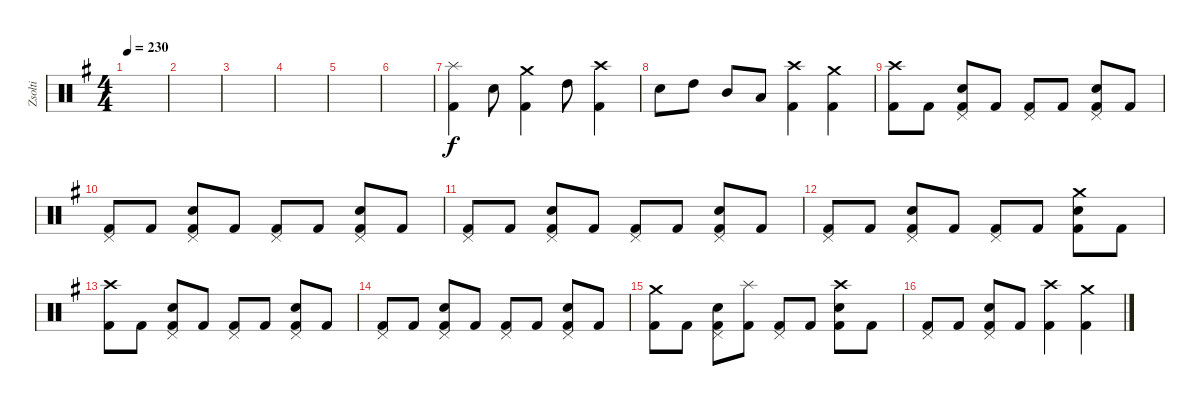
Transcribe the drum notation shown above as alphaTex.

\track ("Zsolti" "Zsolti") {instrument percussion}
\staff {score}
\articulation defaults
\ts (4 4)
\tempo 230
\clef neutral
\ks eminor
|
|
|
|
|
|
("Splash (hit)" "Kick (hit) 2").4 "Snare (hit) 2".8 ("Crash medium (hit)" "Kick (hit) 2").4 "High Tom (hit)".8 ("Crash high (hit)" "Kick (hit) 2").4 |
"Snare (hit) 2".8 "High Tom (hit)".8 "Mid Tom (hit)".8 "Low Tom (hit)".8 ("Crash high (hit)" "Kick (hit) 2").4 ("Crash medium (hit)" "Kick (hit) 2").4 |
("Crash high (hit)" "Kick (hit) 2").8 "Kick (hit) 2".8 ("Pedal Hi-Hat (hit)" "Snare (hit) 2" "Kick (hit) 2").8 "Kick (hit) 2".8 ("Pedal Hi-Hat (hit)" "Kick (hit) 2").8 "Kick (hit) 2".8 ("Pedal Hi-Hat (hit)" "Snare (hit) 2" "Kick (hit) 2").8 "Kick (hit) 2".8 |
("Pedal Hi-Hat (hit)" "Kick (hit) 2").8 "Kick (hit) 2".8 ("Pedal Hi-Hat (hit)" "Snare (hit) 2" "Kick (hit) 2").8 "Kick (hit) 2".8 ("Pedal Hi-Hat (hit)" "Kick (hit) 2").8 "Kick (hit) 2".8 ("Pedal Hi-Hat (hit)" "Snare (hit) 2" "Kick (hit) 2").8 "Kick (hit) 2".8 |
("Pedal Hi-Hat (hit)" "Kick (hit) 2").8 "Kick (hit) 2".8 ("Pedal Hi-Hat (hit)" "Snare (hit) 2" "Kick (hit) 2").8 "Kick (hit) 2".8 ("Pedal Hi-Hat (hit)" "Kick (hit) 2").8 "Kick (hit) 2".8 ("Pedal Hi-Hat (hit)" "Snare (hit) 2" "Kick (hit) 2").8 "Kick (hit) 2".8 |
("Pedal Hi-Hat (hit)" "Kick (hit) 2").8 "Kick (hit) 2".8 ("Pedal Hi-Hat (hit)" "Snare (hit) 2" "Kick (hit) 2").8 "Kick (hit) 2".8 ("Pedal Hi-Hat (hit)" "Kick (hit) 2").8 "Kick (hit) 2".8 ("Crash medium (hit)" "Snare (hit) 2" "Kick (hit) 2").8 "Kick (hit) 2".8 |
("Crash high (hit)" "Kick (hit) 2").8 "Kick (hit) 2".8 ("Pedal Hi-Hat (hit)" "Snare (hit) 2" "Kick (hit) 2").8 "Kick (hit) 2".8 ("Pedal Hi-Hat (hit)" "Kick (hit) 2").8 "Kick (hit) 2".8 ("Pedal Hi-Hat (hit)" "Snare (hit) 2" "Kick (hit) 2").8 "Kick (hit) 2".8 |
("Pedal Hi-Hat (hit)" "Kick (hit) 2").8 "Kick (hit) 2".8 ("Pedal Hi-Hat (hit)" "Snare (hit) 2" "Kick (hit) 2").8 "Kick (hit) 2".8 ("Pedal Hi-Hat (hit)" "Kick (hit) 2").8 "Kick (hit) 2".8 ("Pedal Hi-Hat (hit)" "Snare (hit) 2" "Kick (hit) 2").8 "Kick (hit) 2".8 |
("Crash medium (hit)" "Kick (hit) 2").8 "Kick (hit) 2".8 ("Pedal Hi-Hat (hit)" "Snare (hit) 2" "Kick (hit) 2").8 ("Splash (hit)" "Kick (hit) 2").8 ("Pedal Hi-Hat (hit)" "Kick (hit) 2").8 "Kick (hit) 2".8 ("Crash high (hit)" "Snare (hit) 2" "Kick (hit) 2").8 "Kick (hit) 2".8 |
("Pedal Hi-Hat (hit)" "Kick (hit) 2").8 "Kick (hit) 2".8 ("Pedal Hi-Hat (hit)" "Snare (hit) 2" "Kick (hit) 2").8 "Kick (hit) 2".8 ("Crash high (hit)" "Kick (hit) 2").4 ("Crash medium (hit)" "Kick (hit) 2").4
